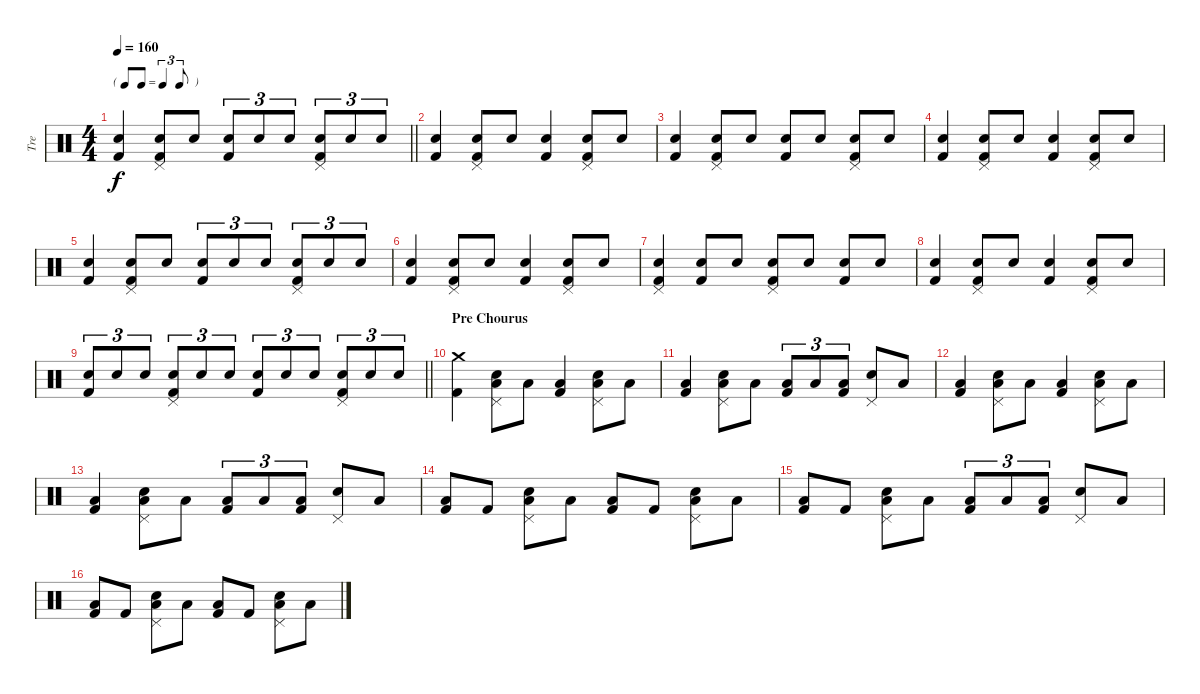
\track ("Tre" "Tre") {instrument percussion}
\staff {score}
\articulation defaults
\ts (4 4)
\tf triplet8th
\tempo 160
\clef neutral
\barLineRight lightlight
\ks c
("Snare (hit) 2" "Kick (hit) 2").4{dy f} ("Pedal Hi-Hat (hit)" "Snare (hit) 2" "Kick (hit) 2").8 "Snare (hit) 2".8 ("Snare (hit) 2" "Kick (hit) 2").8{tu (3 2)} "Snare (hit) 2".8{tu (3 2)} "Snare (hit) 2".8{tu (3 2)} ("Pedal Hi-Hat (hit)" "Snare (hit) 2" "Kick (hit) 2").8{tu (3 2)} "Snare (hit) 2".8{tu (3 2)} "Snare (hit) 2".8{tu (3 2)} |
("Snare (hit) 2" "Kick (hit) 2").4 ("Pedal Hi-Hat (hit)" "Snare (hit) 2" "Kick (hit) 2").8 "Snare (hit) 2".8 ("Snare (hit) 2" "Kick (hit) 2").4 ("Pedal Hi-Hat (hit)" "Snare (hit) 2" "Kick (hit) 2").8 "Snare (hit) 2".8 |
("Snare (hit) 2" "Kick (hit) 2").4 ("Pedal Hi-Hat (hit)" "Snare (hit) 2" "Kick (hit) 2").8 "Snare (hit) 2".8 ("Snare (hit) 2" "Kick (hit) 2").8 "Snare (hit) 2".8 ("Pedal Hi-Hat (hit)" "Snare (hit) 2" "Kick (hit) 2").8 "Snare (hit) 2".8 |
("Snare (hit) 2" "Kick (hit) 2").4 ("Pedal Hi-Hat (hit)" "Snare (hit) 2" "Kick (hit) 2").8 "Snare (hit) 2".8 ("Snare (hit) 2" "Kick (hit) 2").4 ("Pedal Hi-Hat (hit)" "Snare (hit) 2" "Kick (hit) 2").8 "Snare (hit) 2".8 |
("Snare (hit) 2" "Kick (hit) 2").4 ("Pedal Hi-Hat (hit)" "Snare (hit) 2" "Kick (hit) 2").8 "Snare (hit) 2".8 ("Snare (hit) 2" "Kick (hit) 2").8{tu (3 2)} "Snare (hit) 2".8{tu (3 2)} "Snare (hit) 2".8{tu (3 2)} ("Pedal Hi-Hat (hit)" "Snare (hit) 2" "Kick (hit) 2").8{tu (3 2)} "Snare (hit) 2".8{tu (3 2)} "Snare (hit) 2".8{tu (3 2)} |
("Snare (hit) 2" "Kick (hit) 2").4 ("Pedal Hi-Hat (hit)" "Snare (hit) 2" "Kick (hit) 2").8 "Snare (hit) 2".8 ("Snare (hit) 2" "Kick (hit) 2").4 ("Pedal Hi-Hat (hit)" "Snare (hit) 2" "Kick (hit) 2").8 "Snare (hit) 2".8 |
("Pedal Hi-Hat (hit)" "Snare (hit) 2" "Kick (hit) 2").4 ("Snare (hit) 2" "Kick (hit) 2").8 "Snare (hit) 2".8 ("Pedal Hi-Hat (hit)" "Snare (hit) 2" "Kick (hit) 2").8 "Snare (hit) 2".8 ("Snare (hit) 2" "Kick (hit) 2").8 "Snare (hit) 2".8 |
("Snare (hit) 2" "Kick (hit) 2").4 ("Pedal Hi-Hat (hit)" "Snare (hit) 2" "Kick (hit) 2").8 "Snare (hit) 2".8 ("Snare (hit) 2" "Kick (hit) 2").4 ("Pedal Hi-Hat (hit)" "Snare (hit) 2" "Kick (hit) 2").8 "Snare (hit) 2".8 |
\barLineRight lightlight
("Snare (hit) 2" "Kick (hit) 2").8{tu (3 2)} "Snare (hit) 2".8{tu (3 2)} "Snare (hit) 2".8{tu (3 2)} ("Pedal Hi-Hat (hit)" "Snare (hit) 2" "Kick (hit) 2").8{tu (3 2)} "Snare (hit) 2".8{tu (3 2)} "Snare (hit) 2".8{tu (3 2)} ("Snare (hit) 2" "Kick (hit) 2").8{tu (3 2)} "Snare (hit) 2".8{tu (3 2)} "Snare (hit) 2".8{tu (3 2)} ("Pedal Hi-Hat (hit)" "Snare (hit) 2" "Kick (hit) 2").8{tu (3 2)} "Snare (hit) 2".8{tu (3 2)} "Snare (hit) 2".8{tu (3 2)} |
\section ("" "Pre Chourus")
("Crash medium (hit)" "Kick (hit) 2").4 ("Pedal Hi-Hat (hit)" "Snare (hit) 2" "Low Floor Tom (hit)").8 "Low Floor Tom (hit)".8 ("Low Floor Tom (hit)" "Kick (hit) 2").4 ("Pedal Hi-Hat (hit)" "Snare (hit) 2" "Low Floor Tom (hit)").8 "Low Floor Tom (hit)".8 |
("Low Floor Tom (hit)" "Kick (hit) 2").4 ("Pedal Hi-Hat (hit)" "Snare (hit) 2" "Low Floor Tom (hit)").8 "Low Floor Tom (hit)".8 ("Low Floor Tom (hit)" "Kick (hit) 2").8{tu (3 2)} "Low Floor Tom (hit)".8{tu (3 2)} ("Low Floor Tom (hit)" "Kick (hit) 2").8{tu (3 2)} ("Pedal Hi-Hat (hit)" "Snare (hit) 2").8 "Low Floor Tom (hit)".8 |
("Low Floor Tom (hit)" "Kick (hit) 2").4 ("Pedal Hi-Hat (hit)" "Snare (hit) 2" "Low Floor Tom (hit)").8 "Low Floor Tom (hit)".8 ("Low Floor Tom (hit)" "Kick (hit) 2").4 ("Pedal Hi-Hat (hit)" "Snare (hit) 2" "Low Floor Tom (hit)").8 "Low Floor Tom (hit)".8 |
("Low Floor Tom (hit)" "Kick (hit) 2").4 ("Pedal Hi-Hat (hit)" "Snare (hit) 2" "Low Floor Tom (hit)").8 "Low Floor Tom (hit)".8 ("Low Floor Tom (hit)" "Kick (hit) 2").8{tu (3 2)} "Low Floor Tom (hit)".8{tu (3 2)} ("Low Floor Tom (hit)" "Kick (hit) 2").8{tu (3 2)} ("Pedal Hi-Hat (hit)" "Snare (hit) 2").8 "Low Floor Tom (hit)".8 |
("Low Floor Tom (hit)" "Kick (hit) 2").8 "Kick (hit) 2".8 ("Pedal Hi-Hat (hit)" "Snare (hit) 2" "Low Floor Tom (hit)").8 "Low Floor Tom (hit)".8 ("Low Floor Tom (hit)" "Kick (hit) 2").8 "Kick (hit) 2".8 ("Pedal Hi-Hat (hit)" "Snare (hit) 2" "Low Floor Tom (hit)").8 "Low Floor Tom (hit)".8 |
("Low Floor Tom (hit)" "Kick (hit) 2").8 "Kick (hit) 2".8 ("Pedal Hi-Hat (hit)" "Snare (hit) 2" "Low Floor Tom (hit)").8 "Low Floor Tom (hit)".8 ("Low Floor Tom (hit)" "Kick (hit) 2").8{tu (3 2)} "Low Floor Tom (hit)".8{tu (3 2)} ("Low Floor Tom (hit)" "Kick (hit) 2").8{tu (3 2)} ("Pedal Hi-Hat (hit)" "Snare (hit) 2").8 "Low Floor Tom (hit)".8 |
("Low Floor Tom (hit)" "Kick (hit) 2").8 "Kick (hit) 2".8 ("Pedal Hi-Hat (hit)" "Snare (hit) 2" "Low Floor Tom (hit)").8 "Low Floor Tom (hit)".8 ("Low Floor Tom (hit)" "Kick (hit) 2").8 "Kick (hit) 2".8 ("Pedal Hi-Hat (hit)" "Snare (hit) 2" "Low Floor Tom (hit)").8 "Low Floor Tom (hit)".8
